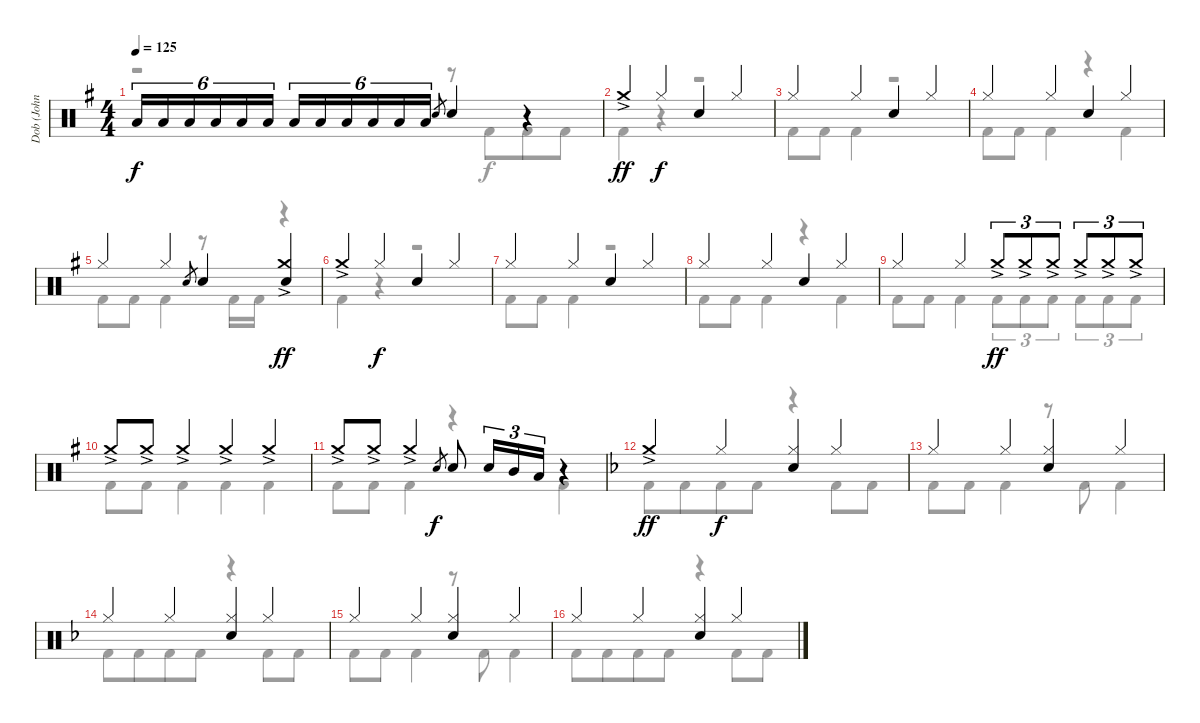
\track ("Dob (John Macaluso)" "Dob (John ") {instrument percussion}
\staff {score}
\articulation defaults
\voice
\ts (4 4)
\tempo 125
\clef neutral
\ks g "Low Tom (hit)".16{tu (6 4) dy f} "Low Tom (hit)".16{tu (6 4)} "Low Tom (hit)".16{tu (6 4)} "Low Tom (hit)".16{tu (6 4)} "Low Tom (hit)".16{tu (6 4)} "Low Tom (hit)".16{tu (6 4)} "Low Tom (hit)".16{tu (6 4)} "Low Tom (hit)".16{tu (6 4)} "Low Tom (hit)".16{tu (6 4)} "Low Tom (hit)".16{tu (6 4)} "Low Tom (hit)".16{tu (6 4)} "Low Tom (hit)".16{tu (6 4)} "Electric Snare (hit)".8{gr} "Electric Snare (hit)".4
r.4 |
"Crash medium (hit)"{ac}.4{dy ff} "Hi-Hat (closed)".4{dy f} "Electric Snare (hit)".4 "Hi-Hat (closed)".4 |
"Hi-Hat (closed)".4 "Hi-Hat (closed)".4 "Electric Snare (hit)".4 "Hi-Hat (closed)".4 |
"Hi-Hat (closed)".4 "Hi-Hat (closed)".4 "Electric Snare (hit)".4 "Hi-Hat (closed)".4 |
"Hi-Hat (closed)".4 "Hi-Hat (closed)".4 "Electric Snare (hit)".8{gr} "Electric Snare (hit)".4 ("Crash medium (hit)"{ac} "Electric Snare (hit)").4{dy ff} |
"Crash medium (hit)"{ac}.4 "Hi-Hat (closed)".4{dy f} "Electric Snare (hit)".4 "Hi-Hat (closed)".4 |
"Hi-Hat (closed)".4 "Hi-Hat (closed)".4 "Electric Snare (hit)".4 "Hi-Hat (closed)".4 |
"Hi-Hat (closed)".4 "Hi-Hat (closed)".4 "Electric Snare (hit)".4 "Hi-Hat (closed)".4 |
"Hi-Hat (closed)".4 "Hi-Hat (closed)".4 "Crash medium (hit)"{ac}.8{tu (3 2) dy ff} "Crash medium (hit)"{ac}.8{tu (3 2)} "Crash medium (hit)"{ac}.8{tu (3 2)} "Crash medium (hit)"{ac}.8{tu (3 2)} "Crash medium (hit)"{ac}.8{tu (3 2)} "Crash medium (hit)"{ac}.8{tu (3 2)} |
"Crash medium (hit)"{ac}.8 "Crash medium (hit)"{ac}.8 "Crash medium (hit)"{ac}.4 "Crash medium (hit)"{ac}.4 "Crash medium (hit)"{ac}.4 |
"Crash medium (hit)"{ac}.8 "Crash medium (hit)"{ac}.8 "Crash medium (hit)"{ac}.4 "Electric Snare (hit)".8{gr dy f} "Electric Snare (hit)".8 "Electric Snare (hit)".16{tu (3 2)} "Mid Tom (hit)".16{tu (3 2)} "Low Tom (hit)".16{tu (3 2)} r.4 |
\ks f "Crash medium (hit)"{ac}.4{dy ff} "Hi-Hat (closed)".4{dy f}
("Hi-Hat (closed)" "Electric Snare (hit)").4 "Hi-Hat (closed)".4 |
"Hi-Hat (closed)".4 "Hi-Hat (closed)".4 ("Hi-Hat (closed)" "Electric Snare (hit)").4 "Hi-Hat (closed)".4 |
"Hi-Hat (closed)".4 "Hi-Hat (closed)".4 ("Hi-Hat (closed)" "Electric Snare (hit)").4 "Hi-Hat (closed)".4 |
"Hi-Hat (closed)".4 "Hi-Hat (closed)".4 ("Hi-Hat (closed)" "Electric Snare (hit)").4 "Hi-Hat (closed)".4 |
"Hi-Hat (closed)".4 "Hi-Hat (closed)".4 ("Hi-Hat (closed)" "Electric Snare (hit)").4 "Hi-Hat (closed)".4
\voice
\clef neutral
\ottava regular
\simile none
\ks g
r.2{dy f} r.8 "Kick (hit) 2".8{beam merge} "Kick (hit) 2".8 "Kick (hit) 2".8 |
"Kick (hit) 2".4 r.4 r.2 |
"Kick (hit) 2".8 "Kick (hit) 2".8 "Kick (hit) 2".4 r.2 |
"Kick (hit) 2".8 "Kick (hit) 2".8 "Kick (hit) 2".4 r.4 "Kick (hit) 2".4 |
"Kick (hit) 2".8 "Kick (hit) 2".8 "Kick (hit) 2".4 r.8 "Kick (hit) 2".16 "Kick (hit) 2".16 r.4 |
"Kick (hit) 2".4 r.4 r.2 |
"Kick (hit) 2".8 "Kick (hit) 2".8 "Kick (hit) 2".4 r.2 |
"Kick (hit) 2".8 "Kick (hit) 2".8 "Kick (hit) 2".4 r.4 "Kick (hit) 2".4 |
"Kick (hit) 2".8 "Kick (hit) 2".8 "Kick (hit) 2".4 "Kick (hit) 2".8{tu (3 2)} "Kick (hit) 2".8{tu (3 2)} "Kick (hit) 2".8{tu (3 2)} "Kick (hit) 2".8{tu (3 2)} "Kick (hit) 2".8{tu (3 2)} "Kick (hit) 2".8{tu (3 2)} |
"Kick (hit) 2".8 "Kick (hit) 2".8 "Kick (hit) 2".4 "Kick (hit) 2".4 "Kick (hit) 2".4 |
"Kick (hit) 2".8 "Kick (hit) 2".8 "Kick (hit) 2".4 r.4 "Kick (hit) 2".4 |
\ks f "Kick (hit) 2".8 "Kick (hit) 2".8{beam merge} "Kick (hit) 2".8 "Kick (hit) 2".8
r.4 "Kick (hit) 2".8 "Kick (hit) 2".8 |
"Kick (hit) 2".8 "Kick (hit) 2".8 "Kick (hit) 2".4 r.8 "Kick (hit) 2".8 "Kick (hit) 2".4 |
"Kick (hit) 2".8 "Kick (hit) 2".8{beam merge} "Kick (hit) 2".8 "Kick (hit) 2".8 r.4 "Kick (hit) 2".8 "Kick (hit) 2".8 |
"Kick (hit) 2".8 "Kick (hit) 2".8 "Kick (hit) 2".4 r.8 "Kick (hit) 2".8 "Kick (hit) 2".4 |
"Kick (hit) 2".8 "Kick (hit) 2".8{beam merge} "Kick (hit) 2".8 "Kick (hit) 2".8 r.4 "Kick (hit) 2".8 "Kick (hit) 2".8
